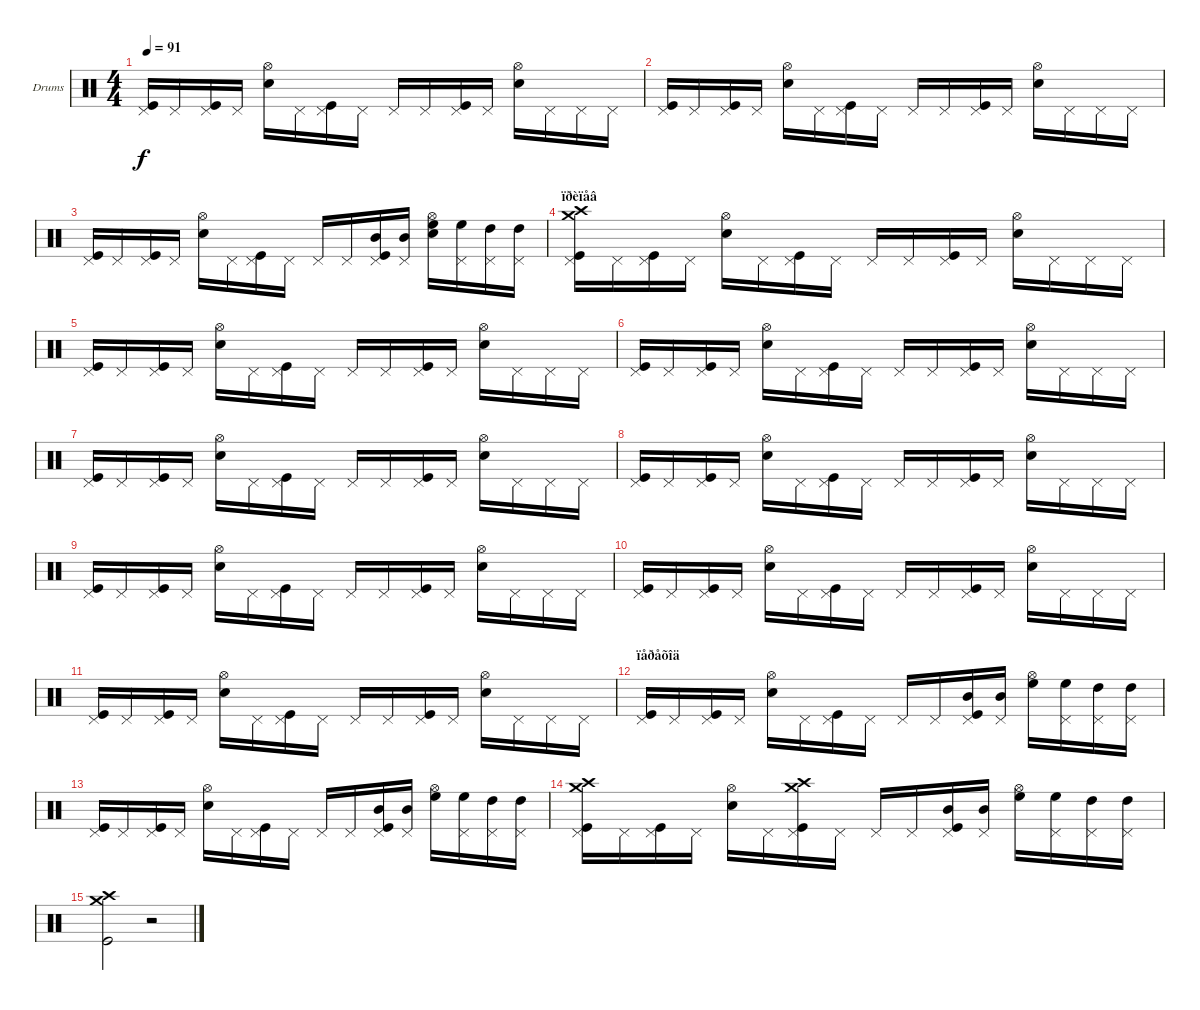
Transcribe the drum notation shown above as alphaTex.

\bracketExtendMode groupsimilarinstruments
\firstSystemTrackNameOrientation horizontal
\otherSystemsTrackNameOrientation horizontal
\track ("Drumkit" "Drums") {instrument percussion}
\staff {score}
\articulation defaults
\ts (4 4)
\tempo 91
\clef neutral
\ks c
("Pedal Hi-Hat (hit)" "Kick (hit)").16{dy f} "Pedal Hi-Hat (hit)".16 ("Pedal Hi-Hat (hit)" "Kick (hit)").16 "Pedal Hi-Hat (hit)".16 ("Hi-Hat (open)" "Snare (hit) 2").16 "Pedal Hi-Hat (hit)".16 ("Pedal Hi-Hat (hit)" "Kick (hit)").16 "Pedal Hi-Hat (hit)".16 "Pedal Hi-Hat (hit)".16 "Pedal Hi-Hat (hit)".16 ("Pedal Hi-Hat (hit)" "Kick (hit)").16 "Pedal Hi-Hat (hit)".16 ("Hi-Hat (open)" "Snare (hit) 2").16 "Pedal Hi-Hat (hit)".16 "Pedal Hi-Hat (hit)".16 "Pedal Hi-Hat (hit)".16 |
("Pedal Hi-Hat (hit)" "Kick (hit)").16 "Pedal Hi-Hat (hit)".16 ("Pedal Hi-Hat (hit)" "Kick (hit)").16 "Pedal Hi-Hat (hit)".16 ("Hi-Hat (open)" "Snare (hit) 2").16 "Pedal Hi-Hat (hit)".16 ("Pedal Hi-Hat (hit)" "Kick (hit)").16 "Pedal Hi-Hat (hit)".16 "Pedal Hi-Hat (hit)".16 "Pedal Hi-Hat (hit)".16 ("Pedal Hi-Hat (hit)" "Kick (hit)").16 "Pedal Hi-Hat (hit)".16 ("Hi-Hat (open)" "Snare (hit) 2").16 "Pedal Hi-Hat (hit)".16 "Pedal Hi-Hat (hit)".16 "Pedal Hi-Hat (hit)".16 |
("Pedal Hi-Hat (hit)" "Kick (hit)").16 "Pedal Hi-Hat (hit)".16 ("Pedal Hi-Hat (hit)" "Kick (hit)").16 "Pedal Hi-Hat (hit)".16 ("Hi-Hat (open)" "Snare (hit) 2").16 "Pedal Hi-Hat (hit)".16 ("Pedal Hi-Hat (hit)" "Kick (hit)").16 "Pedal Hi-Hat (hit)".16 "Pedal Hi-Hat (hit)".16 "Pedal Hi-Hat (hit)".16 ("Pedal Hi-Hat (hit)" "Kick (hit)" "Mid Tom (hit)").16 ("Pedal Hi-Hat (hit)" "Mid Tom (hit)").16 ("Hi-Hat (open)" "Snare (hit) 2" "High Floor Tom (hit)").16 ("Pedal Hi-Hat (hit)" "High Floor Tom (hit)").16 ("Pedal Hi-Hat (hit)" "High Tom (hit)").16 ("Pedal Hi-Hat (hit)" "High Tom (hit)").16 |
\section ("" "ïðèïåâ")
("Pedal Hi-Hat (hit)" "Kick (hit)" "Crash medium (hit)" "Crash high (hit)").16 "Pedal Hi-Hat (hit)".16 ("Pedal Hi-Hat (hit)" "Kick (hit)").16 "Pedal Hi-Hat (hit)".16 ("Hi-Hat (open)" "Snare (hit) 2").16 "Pedal Hi-Hat (hit)".16 ("Pedal Hi-Hat (hit)" "Kick (hit)").16 "Pedal Hi-Hat (hit)".16 "Pedal Hi-Hat (hit)".16 "Pedal Hi-Hat (hit)".16 ("Pedal Hi-Hat (hit)" "Kick (hit)").16 "Pedal Hi-Hat (hit)".16 ("Hi-Hat (open)" "Snare (hit) 2").16 "Pedal Hi-Hat (hit)".16 "Pedal Hi-Hat (hit)".16 "Pedal Hi-Hat (hit)".16 |
("Pedal Hi-Hat (hit)" "Kick (hit)").16 "Pedal Hi-Hat (hit)".16 ("Pedal Hi-Hat (hit)" "Kick (hit)").16 "Pedal Hi-Hat (hit)".16 ("Hi-Hat (open)" "Snare (hit) 2").16 "Pedal Hi-Hat (hit)".16 ("Pedal Hi-Hat (hit)" "Kick (hit)").16 "Pedal Hi-Hat (hit)".16 "Pedal Hi-Hat (hit)".16 "Pedal Hi-Hat (hit)".16 ("Pedal Hi-Hat (hit)" "Kick (hit)").16 "Pedal Hi-Hat (hit)".16 ("Hi-Hat (open)" "Snare (hit) 2").16 "Pedal Hi-Hat (hit)".16 "Pedal Hi-Hat (hit)".16 "Pedal Hi-Hat (hit)".16 |
("Pedal Hi-Hat (hit)" "Kick (hit)").16 "Pedal Hi-Hat (hit)".16 ("Pedal Hi-Hat (hit)" "Kick (hit)").16 "Pedal Hi-Hat (hit)".16 ("Hi-Hat (open)" "Snare (hit) 2").16 "Pedal Hi-Hat (hit)".16 ("Pedal Hi-Hat (hit)" "Kick (hit)").16 "Pedal Hi-Hat (hit)".16 "Pedal Hi-Hat (hit)".16 "Pedal Hi-Hat (hit)".16 ("Pedal Hi-Hat (hit)" "Kick (hit)").16 "Pedal Hi-Hat (hit)".16 ("Hi-Hat (open)" "Snare (hit) 2").16 "Pedal Hi-Hat (hit)".16 "Pedal Hi-Hat (hit)".16 "Pedal Hi-Hat (hit)".16 |
("Pedal Hi-Hat (hit)" "Kick (hit)").16 "Pedal Hi-Hat (hit)".16 ("Pedal Hi-Hat (hit)" "Kick (hit)").16 "Pedal Hi-Hat (hit)".16 ("Hi-Hat (open)" "Snare (hit) 2").16 "Pedal Hi-Hat (hit)".16 ("Pedal Hi-Hat (hit)" "Kick (hit)").16 "Pedal Hi-Hat (hit)".16 "Pedal Hi-Hat (hit)".16 "Pedal Hi-Hat (hit)".16 ("Pedal Hi-Hat (hit)" "Kick (hit)").16 "Pedal Hi-Hat (hit)".16 ("Hi-Hat (open)" "Snare (hit) 2").16 "Pedal Hi-Hat (hit)".16 "Pedal Hi-Hat (hit)".16 "Pedal Hi-Hat (hit)".16 |
("Pedal Hi-Hat (hit)" "Kick (hit)").16 "Pedal Hi-Hat (hit)".16 ("Pedal Hi-Hat (hit)" "Kick (hit)").16 "Pedal Hi-Hat (hit)".16 ("Hi-Hat (open)" "Snare (hit) 2").16 "Pedal Hi-Hat (hit)".16 ("Pedal Hi-Hat (hit)" "Kick (hit)").16 "Pedal Hi-Hat (hit)".16 "Pedal Hi-Hat (hit)".16 "Pedal Hi-Hat (hit)".16 ("Pedal Hi-Hat (hit)" "Kick (hit)").16 "Pedal Hi-Hat (hit)".16 ("Hi-Hat (open)" "Snare (hit) 2").16 "Pedal Hi-Hat (hit)".16 "Pedal Hi-Hat (hit)".16 "Pedal Hi-Hat (hit)".16 |
("Pedal Hi-Hat (hit)" "Kick (hit)").16 "Pedal Hi-Hat (hit)".16 ("Pedal Hi-Hat (hit)" "Kick (hit)").16 "Pedal Hi-Hat (hit)".16 ("Hi-Hat (open)" "Snare (hit) 2").16 "Pedal Hi-Hat (hit)".16 ("Pedal Hi-Hat (hit)" "Kick (hit)").16 "Pedal Hi-Hat (hit)".16 "Pedal Hi-Hat (hit)".16 "Pedal Hi-Hat (hit)".16 ("Pedal Hi-Hat (hit)" "Kick (hit)").16 "Pedal Hi-Hat (hit)".16 ("Hi-Hat (open)" "Snare (hit) 2").16 "Pedal Hi-Hat (hit)".16 "Pedal Hi-Hat (hit)".16 "Pedal Hi-Hat (hit)".16 |
("Pedal Hi-Hat (hit)" "Kick (hit)").16 "Pedal Hi-Hat (hit)".16 ("Pedal Hi-Hat (hit)" "Kick (hit)").16 "Pedal Hi-Hat (hit)".16 ("Hi-Hat (open)" "Snare (hit) 2").16 "Pedal Hi-Hat (hit)".16 ("Pedal Hi-Hat (hit)" "Kick (hit)").16 "Pedal Hi-Hat (hit)".16 "Pedal Hi-Hat (hit)".16 "Pedal Hi-Hat (hit)".16 ("Pedal Hi-Hat (hit)" "Kick (hit)").16 "Pedal Hi-Hat (hit)".16 ("Hi-Hat (open)" "Snare (hit) 2").16 "Pedal Hi-Hat (hit)".16 "Pedal Hi-Hat (hit)".16 "Pedal Hi-Hat (hit)".16 |
("Pedal Hi-Hat (hit)" "Kick (hit)").16 "Pedal Hi-Hat (hit)".16 ("Pedal Hi-Hat (hit)" "Kick (hit)").16 "Pedal Hi-Hat (hit)".16 ("Hi-Hat (open)" "Snare (hit) 2").16 "Pedal Hi-Hat (hit)".16 ("Pedal Hi-Hat (hit)" "Kick (hit)").16 "Pedal Hi-Hat (hit)".16 "Pedal Hi-Hat (hit)".16 "Pedal Hi-Hat (hit)".16 ("Pedal Hi-Hat (hit)" "Kick (hit)").16 "Pedal Hi-Hat (hit)".16 ("Hi-Hat (open)" "Snare (hit) 2").16 "Pedal Hi-Hat (hit)".16 "Pedal Hi-Hat (hit)".16 "Pedal Hi-Hat (hit)".16 |
\section ("" "ïåðåõîä")
("Pedal Hi-Hat (hit)" "Kick (hit)").16 "Pedal Hi-Hat (hit)".16 ("Pedal Hi-Hat (hit)" "Kick (hit)").16 "Pedal Hi-Hat (hit)".16 ("Hi-Hat (open)" "Snare (hit) 2").16 "Pedal Hi-Hat (hit)".16 ("Pedal Hi-Hat (hit)" "Kick (hit)").16 "Pedal Hi-Hat (hit)".16 "Pedal Hi-Hat (hit)".16 "Pedal Hi-Hat (hit)".16 ("Pedal Hi-Hat (hit)" "Kick (hit)" "Mid Tom (hit)").16 ("Pedal Hi-Hat (hit)" "Mid Tom (hit)").16 ("Hi-Hat (open)" "High Floor Tom (hit)").16 ("Pedal Hi-Hat (hit)" "High Floor Tom (hit)").16 ("Pedal Hi-Hat (hit)" "High Tom (hit)").16 ("Pedal Hi-Hat (hit)" "High Tom (hit)").16 |
("Pedal Hi-Hat (hit)" "Kick (hit)").16 "Pedal Hi-Hat (hit)".16 ("Pedal Hi-Hat (hit)" "Kick (hit)").16 "Pedal Hi-Hat (hit)".16 ("Hi-Hat (open)" "Snare (hit) 2").16 "Pedal Hi-Hat (hit)".16 ("Pedal Hi-Hat (hit)" "Kick (hit)").16 "Pedal Hi-Hat (hit)".16 "Pedal Hi-Hat (hit)".16 "Pedal Hi-Hat (hit)".16 ("Pedal Hi-Hat (hit)" "Kick (hit)" "Mid Tom (hit)").16 ("Pedal Hi-Hat (hit)" "Mid Tom (hit)").16 ("Hi-Hat (open)" "High Floor Tom (hit)").16 ("Pedal Hi-Hat (hit)" "High Floor Tom (hit)").16 ("Pedal Hi-Hat (hit)" "High Tom (hit)").16 ("Pedal Hi-Hat (hit)" "High Tom (hit)").16 |
("Pedal Hi-Hat (hit)" "Kick (hit)" "Crash medium (hit)" "Crash high (hit)").16 "Pedal Hi-Hat (hit)".16 ("Pedal Hi-Hat (hit)" "Kick (hit)").16 "Pedal Hi-Hat (hit)".16 ("Hi-Hat (open)" "Snare (hit) 2").16 "Pedal Hi-Hat (hit)".16 ("Pedal Hi-Hat (hit)" "Kick (hit)" "Crash high (hit)" "Crash medium (hit)").16 "Pedal Hi-Hat (hit)".16 "Pedal Hi-Hat (hit)".16 "Pedal Hi-Hat (hit)".16 ("Pedal Hi-Hat (hit)" "Kick (hit)" "Mid Tom (hit)").16 ("Pedal Hi-Hat (hit)" "Mid Tom (hit)").16 ("Hi-Hat (open)" "High Floor Tom (hit)").16 ("Pedal Hi-Hat (hit)" "High Floor Tom (hit)").16 ("Pedal Hi-Hat (hit)" "High Tom (hit)").16 ("Pedal Hi-Hat (hit)" "High Tom (hit)").16 |
("Crash high (hit)" "Kick (hit)" "Crash medium (hit)").2 r.2
